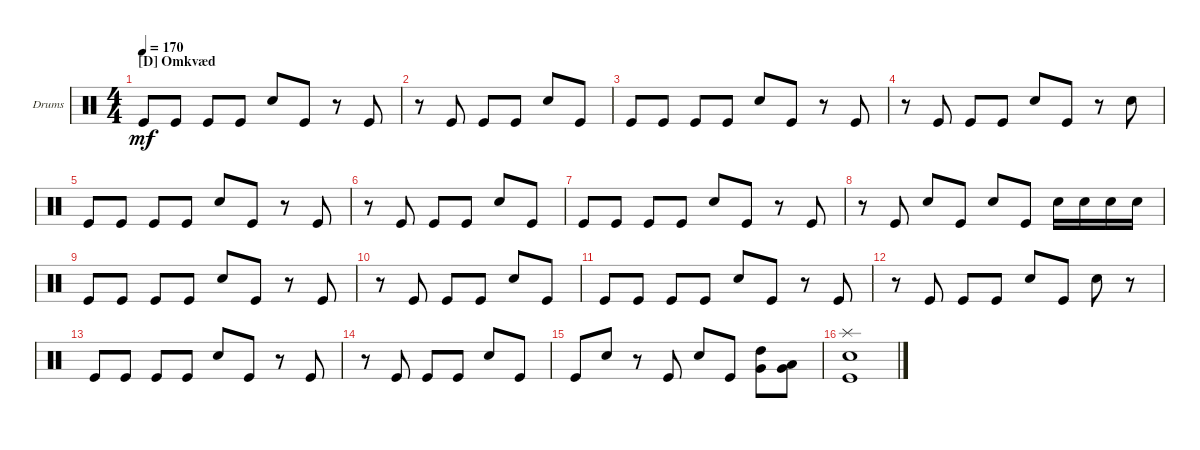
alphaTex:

\defaultSystemsLayout 4
\bracketExtendMode groupsimilarinstruments
\firstSystemTrackNameOrientation horizontal
\otherSystemsTrackNameOrientation horizontal
\track ("Ray" "Drums") {instrument percussion}
\staff {score}
\articulation defaults
\ts (4 4)
\section ("D" "Omkvæd")
\tempo 170
\clef neutral
\ks c "Kick (hit)".8{dy mf} "Kick (hit)".8 "Kick (hit)".8 "Kick (hit)".8 "Snare (hit) 2".8 "Kick (hit)".8
r.8 "Kick (hit)".8 |
r.8 "Kick (hit)".8 "Kick (hit)".8 "Kick (hit)".8 "Snare (hit) 2".8 "Kick (hit)".8 |
"Kick (hit)".8 "Kick (hit)".8 "Kick (hit)".8 "Kick (hit)".8 "Snare (hit) 2".8 "Kick (hit)".8 r.8 "Kick (hit)".8 |
r.8 "Kick (hit)".8 "Kick (hit)".8 "Kick (hit)".8 "Snare (hit) 2".8 "Kick (hit)".8 r.8 "Snare (hit) 2".8 |
"Kick (hit)".8 "Kick (hit)".8 "Kick (hit)".8 "Kick (hit)".8 "Snare (hit) 2".8 "Kick (hit)".8 r.8 "Kick (hit)".8 |
r.8 "Kick (hit)".8 "Kick (hit)".8 "Kick (hit)".8 "Snare (hit) 2".8 "Kick (hit)".8 |
"Kick (hit)".8 "Kick (hit)".8 "Kick (hit)".8 "Kick (hit)".8 "Snare (hit) 2".8 "Kick (hit)".8 r.8 "Kick (hit)".8 |
r.8 "Kick (hit)".8 "Snare (hit) 2".8 "Kick (hit)".8 "Snare (hit) 2".8 "Kick (hit)".8 "Snare (hit) 2".16 "Snare (hit) 2".16 "Snare (hit) 2".16 "Snare (hit) 2".16 |
"Kick (hit)".8 "Kick (hit)".8 "Kick (hit)".8 "Kick (hit)".8 "Snare (hit) 2".8 "Kick (hit)".8 r.8 "Kick (hit)".8 |
r.8 "Kick (hit)".8 "Kick (hit)".8 "Kick (hit)".8 "Snare (hit) 2".8 "Kick (hit)".8 |
"Kick (hit)".8 "Kick (hit)".8 "Kick (hit)".8 "Kick (hit)".8 "Snare (hit) 2".8 "Kick (hit)".8 r.8 "Kick (hit)".8 |
r.8 "Kick (hit)".8 "Kick (hit)".8 "Kick (hit)".8 "Snare (hit) 2".8 "Kick (hit)".8 "Snare (hit) 2".8 r.8 |
"Kick (hit)".8 "Kick (hit)".8 "Kick (hit)".8 "Kick (hit)".8 "Snare (hit) 2".8 "Kick (hit)".8 r.8 "Kick (hit)".8 |
r.8 "Kick (hit)".8 "Kick (hit)".8 "Kick (hit)".8 "Snare (hit) 2".8 "Kick (hit)".8 |
"Kick (hit)".8 "Snare (hit) 2".8 r.8 "Kick (hit)".8 "Snare (hit) 2".8 "Kick (hit)".8 ("Very Low Tom (hit)" "High Tom (hit)").8 ("Very Low Tom (hit)" "Low Tom (hit)").8 |
("Splash (hit)" "Kick (hit)" "Snare (hit) 2").1
